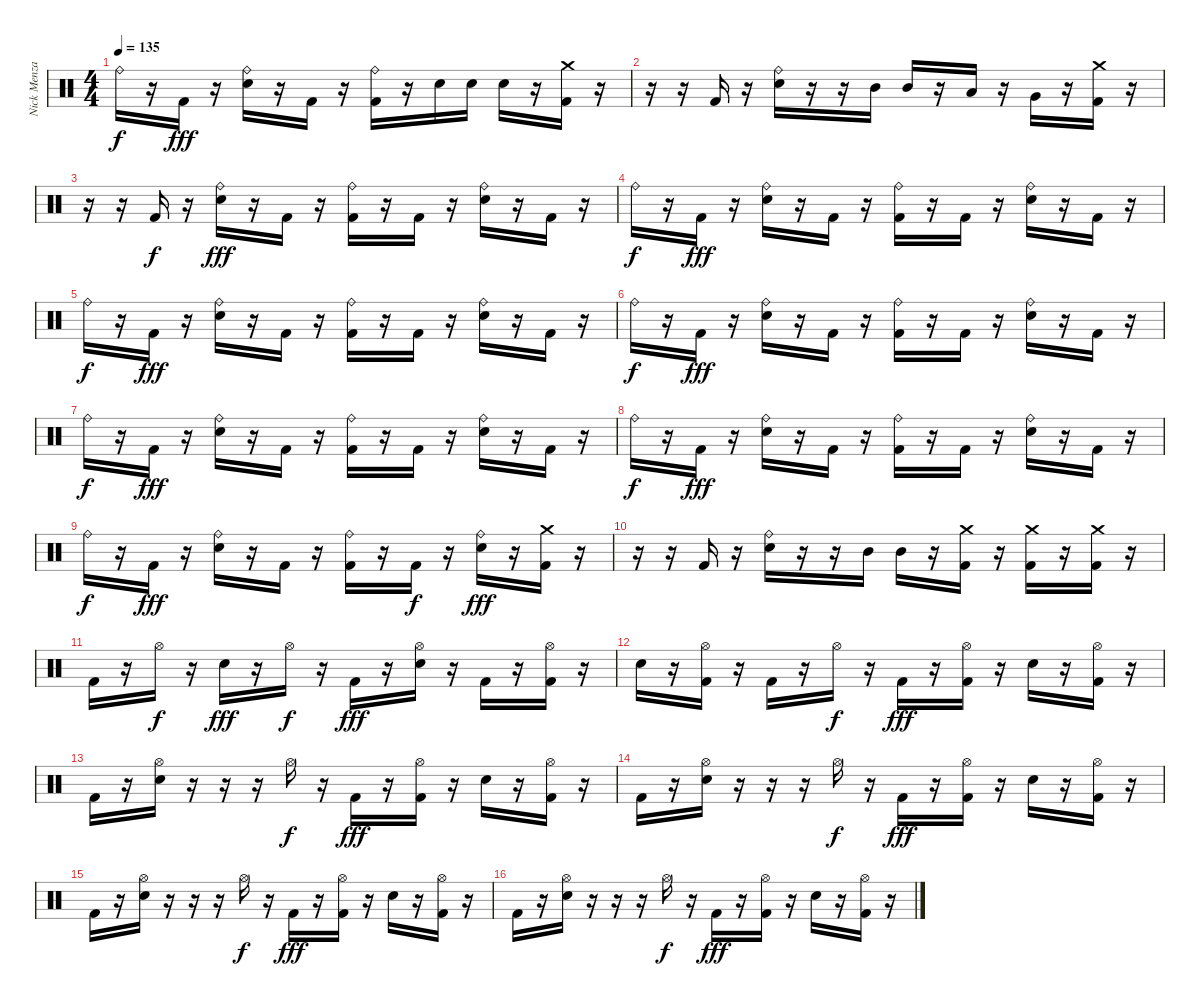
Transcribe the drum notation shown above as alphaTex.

\track ("Nick Menza" "Nick Menza") {instrument percussion}
\staff {score}
\articulation defaults
\ts (4 4)
\tempo 135
\clef neutral
\ks c "Ride (bell)".16{dy f}
r.16 "Kick (hit) 2".16{dy fff} r.16 ("Electric Snare (hit)" "Ride (bell)").16 r.16 "Kick (hit) 2".16 r.16 ("Kick (hit) 2" "Ride (bell)").16 r.16 "Electric Snare (hit)".16 "Electric Snare (hit)".16 "Electric Snare (hit)".16 r.16 ("Kick (hit) 2" "Crash medium (hit)").16 r.16 |
r.16 r.16 "Kick (hit) 2".16 r.16 ("Electric Snare (hit)" "Ride (bell)").16 r.16 r.16 "Mid Tom (hit)".16 "Mid Tom (hit)".16 r.16 "Low Tom (hit)".16 r.16 "Very Low Tom (hit)".16 r.16 ("Kick (hit) 2" "Crash medium (hit)").16 r.16 |
r.16 r.16 "Kick (hit) 2".16{dy f} r.16 ("Electric Snare (hit)" "Ride (bell)").16{dy fff} r.16 "Kick (hit) 2".16 r.16 ("Kick (hit) 2" "Ride (bell)").16 r.16 "Kick (hit) 2".16 r.16 ("Electric Snare (hit)" "Ride (bell)").16 r.16 "Kick (hit) 2".16 r.16 |
"Ride (bell)".16{dy f} r.16 "Kick (hit) 2".16{dy fff} r.16 ("Electric Snare (hit)" "Ride (bell)").16 r.16 "Kick (hit) 2".16 r.16 ("Kick (hit) 2" "Ride (bell)").16 r.16 "Kick (hit) 2".16 r.16 ("Electric Snare (hit)" "Ride (bell)").16 r.16 "Kick (hit) 2".16 r.16 |
"Ride (bell)".16{dy f} r.16 "Kick (hit) 2".16{dy fff} r.16 ("Electric Snare (hit)" "Ride (bell)").16 r.16 "Kick (hit) 2".16 r.16 ("Kick (hit) 2" "Ride (bell)").16 r.16 "Kick (hit) 2".16 r.16 ("Electric Snare (hit)" "Ride (bell)").16 r.16 "Kick (hit) 2".16 r.16 |
"Ride (bell)".16{dy f} r.16 "Kick (hit) 2".16{dy fff} r.16 ("Electric Snare (hit)" "Ride (bell)").16 r.16 "Kick (hit) 2".16 r.16 ("Kick (hit) 2" "Ride (bell)").16 r.16 "Kick (hit) 2".16 r.16 ("Electric Snare (hit)" "Ride (bell)").16 r.16 "Kick (hit) 2".16 r.16 |
"Ride (bell)".16{dy f} r.16 "Kick (hit) 2".16{dy fff} r.16 ("Electric Snare (hit)" "Ride (bell)").16 r.16 "Kick (hit) 2".16 r.16 ("Kick (hit) 2" "Ride (bell)").16 r.16 "Kick (hit) 2".16 r.16 ("Electric Snare (hit)" "Ride (bell)").16 r.16 "Kick (hit) 2".16 r.16 |
"Ride (bell)".16{dy f} r.16 "Kick (hit) 2".16{dy fff} r.16 ("Electric Snare (hit)" "Ride (bell)").16 r.16 "Kick (hit) 2".16 r.16 ("Kick (hit) 2" "Ride (bell)").16 r.16 "Kick (hit) 2".16 r.16 ("Electric Snare (hit)" "Ride (bell)").16 r.16 "Kick (hit) 2".16 r.16 |
"Ride (bell)".16{dy f} r.16 "Kick (hit) 2".16{dy fff} r.16 ("Electric Snare (hit)" "Ride (bell)").16 r.16 "Kick (hit) 2".16 r.16 ("Kick (hit) 2" "Ride (bell)").16 r.16 "Kick (hit) 2".16{dy f} r.16 ("Electric Snare (hit)" "Ride (bell)").16{dy fff} r.16 ("Kick (hit) 2" "Crash medium (hit)").16 r.16 |
r.16 r.16 "Kick (hit) 2".16 r.16 ("Electric Snare (hit)" "Ride (bell)").16 r.16 r.16 "Mid Tom (hit)".16 "Mid Tom (hit)".16 r.16 ("Kick (hit) 2" "Crash medium (hit)").16 r.16 ("Kick (hit) 2" "Crash medium (hit)").16 r.16 ("Kick (hit) 2" "Crash medium (hit)").16 r.16 |
"Kick (hit) 2".16 r.16 "Hi-Hat (open)".16{dy f} r.16 "Electric Snare (hit)".16{dy fff} r.16 "Hi-Hat (open)".16{dy f} r.16 "Kick (hit) 2".16{dy fff} r.16 ("Electric Snare (hit)" "Hi-Hat (open)").16 r.16 "Kick (hit) 2".16 r.16 ("Kick (hit) 2" "Hi-Hat (open)").16 r.16 |
"Electric Snare (hit)".16 r.16 ("Kick (hit) 2" "Hi-Hat (open)").16 r.16 "Kick (hit) 2".16 r.16 "Hi-Hat (open)".16{dy f} r.16 "Kick (hit) 2".16{dy fff} r.16 ("Kick (hit) 2" "Hi-Hat (open)").16 r.16 "Electric Snare (hit)".16 r.16 ("Kick (hit) 2" "Hi-Hat (open)").16 r.16 |
"Kick (hit) 2".16 r.16 ("Electric Snare (hit)" "Hi-Hat (open)").16 r.16 r.16 r.16 "Hi-Hat (open)".16{dy f} r.16 "Kick (hit) 2".16{dy fff} r.16 ("Kick (hit) 2" "Hi-Hat (open)").16 r.16 "Electric Snare (hit)".16 r.16 ("Kick (hit) 2" "Hi-Hat (open)").16 r.16 |
"Kick (hit) 2".16 r.16 ("Electric Snare (hit)" "Hi-Hat (open)").16 r.16 r.16 r.16 "Hi-Hat (open)".16{dy f} r.16 "Kick (hit) 2".16{dy fff} r.16 ("Kick (hit) 2" "Hi-Hat (open)").16 r.16 "Electric Snare (hit)".16 r.16 ("Kick (hit) 2" "Hi-Hat (open)").16 r.16 |
"Kick (hit) 2".16 r.16 ("Electric Snare (hit)" "Hi-Hat (open)").16 r.16 r.16 r.16 "Hi-Hat (open)".16{dy f} r.16 "Kick (hit) 2".16{dy fff} r.16 ("Kick (hit) 2" "Hi-Hat (open)").16 r.16 "Electric Snare (hit)".16 r.16 ("Kick (hit) 2" "Hi-Hat (open)").16 r.16 |
"Kick (hit) 2".16 r.16 ("Electric Snare (hit)" "Hi-Hat (open)").16 r.16 r.16 r.16 "Hi-Hat (open)".16{dy f} r.16 "Kick (hit) 2".16{dy fff} r.16 ("Kick (hit) 2" "Hi-Hat (open)").16 r.16 "Electric Snare (hit)".16 r.16 ("Kick (hit) 2" "Hi-Hat (open)").16 r.16
